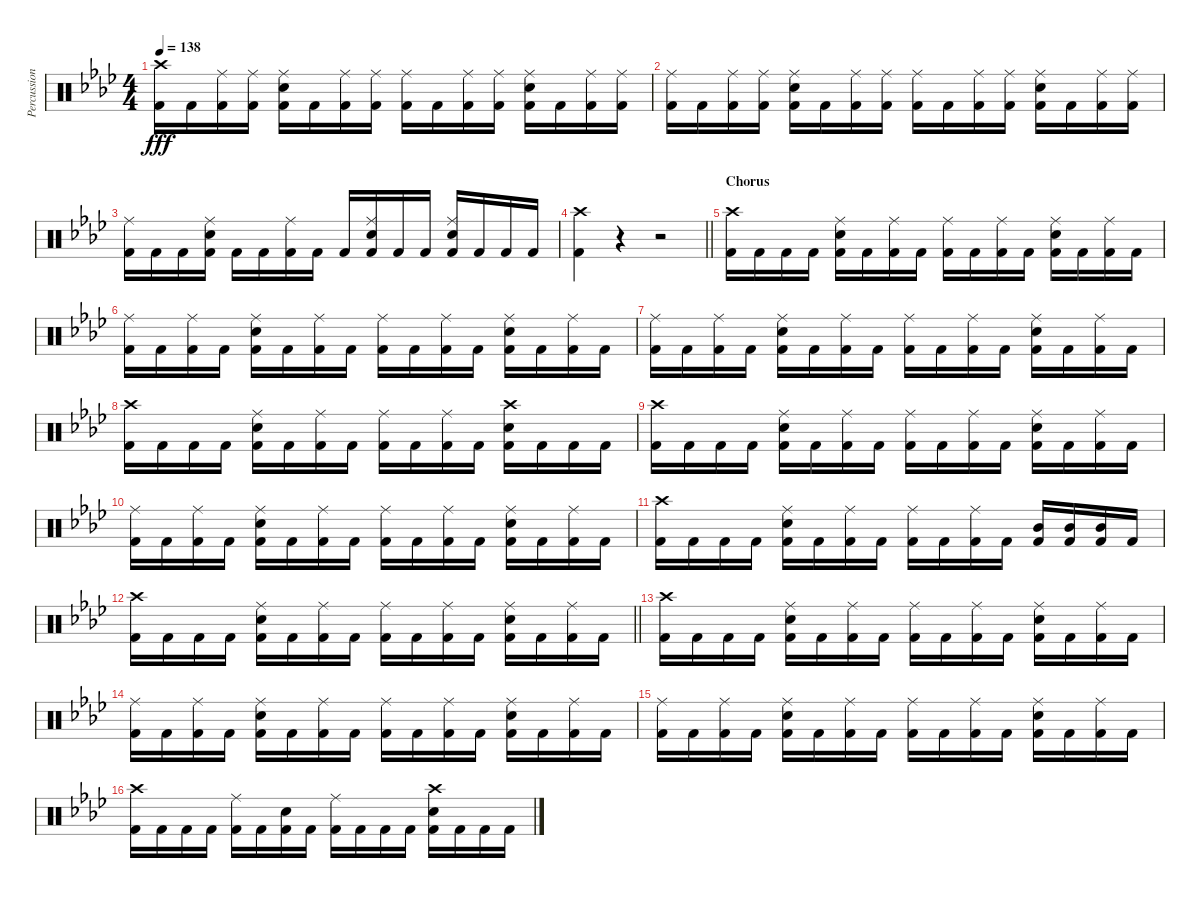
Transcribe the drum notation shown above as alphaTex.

\track ("Percussion" "Percussion") {instrument percussion}
\staff {score}
\articulation defaults
\ts (4 4)
\tempo 138
\clef neutral
\ks fminor
("Crash high (hit)" "Kick (hit) 2").16{dy fff} "Kick (hit) 2".16 ("Ride (middle)" "Kick (hit) 2").16 ("Ride (middle)" "Kick (hit) 2").16 ("Ride (middle)" "Electric Snare (hit)" "Kick (hit) 2").16 "Kick (hit) 2".16 ("Ride (middle)" "Kick (hit) 2").16 ("Ride (middle)" "Kick (hit) 2").16 ("Ride (middle)" "Kick (hit) 2").16 "Kick (hit) 2".16 ("Ride (middle)" "Kick (hit) 2").16 ("Ride (middle)" "Kick (hit) 2").16 ("Ride (middle)" "Electric Snare (hit)" "Kick (hit) 2").16 "Kick (hit) 2".16 ("Ride (middle)" "Kick (hit) 2").16 ("Ride (middle)" "Kick (hit) 2").16 |
("Ride (middle)" "Kick (hit) 2").16 "Kick (hit) 2".16 ("Ride (middle)" "Kick (hit) 2").16 ("Ride (middle)" "Kick (hit) 2").16 ("Ride (middle)" "Electric Snare (hit)" "Kick (hit) 2").16 "Kick (hit) 2".16 ("Ride (middle)" "Kick (hit) 2").16 ("Ride (middle)" "Kick (hit) 2").16 ("Ride (middle)" "Kick (hit) 2").16 "Kick (hit) 2".16 ("Ride (middle)" "Kick (hit) 2").16 ("Ride (middle)" "Kick (hit) 2").16 ("Ride (middle)" "Electric Snare (hit)" "Kick (hit) 2").16 "Kick (hit) 2".16 ("Ride (middle)" "Kick (hit) 2").16 ("Ride (middle)" "Kick (hit) 2").16 |
("Ride (middle)" "Kick (hit) 2").16 "Kick (hit) 2".16 "Kick (hit) 2".16 ("Ride (middle)" "Electric Snare (hit)" "Kick (hit) 2").16 "Kick (hit) 2".16 "Kick (hit) 2".16 ("Ride (middle)" "Kick (hit) 2").16 "Kick (hit) 2".16 "Kick (hit) 2".16 ("Ride (middle)" "Electric Snare (hit)" "Kick (hit) 2").16 "Kick (hit) 2".16 "Kick (hit) 2".16 ("Ride (middle)" "Electric Snare (hit)" "Kick (hit) 2").16 "Kick (hit) 2".16 "Kick (hit) 2".16 "Kick (hit) 2".16 |
\barLineRight lightlight
("Crash high (hit)" "Kick (hit) 2").4 r.4 r.2 |
\section ("" "Chorus")
("Crash high (hit)" "Kick (hit) 2").16 "Kick (hit) 2".16 "Kick (hit) 2".16 "Kick (hit) 2".16 ("Ride (middle)" "Electric Snare (hit)" "Kick (hit) 2").16 "Kick (hit) 2".16 ("Ride (middle)" "Kick (hit) 2").16 "Kick (hit) 2".16 ("Ride (middle)" "Kick (hit) 2").16 "Kick (hit) 2".16 ("Ride (middle)" "Kick (hit) 2").16 "Kick (hit) 2".16 ("Ride (middle)" "Electric Snare (hit)" "Kick (hit) 2").16 "Kick (hit) 2".16 ("Ride (middle)" "Kick (hit) 2").16 "Kick (hit) 2".16 |
("Ride (middle)" "Kick (hit) 2").16 "Kick (hit) 2".16 ("Ride (middle)" "Kick (hit) 2").16 "Kick (hit) 2".16 ("Ride (middle)" "Electric Snare (hit)" "Kick (hit) 2").16 "Kick (hit) 2".16 ("Ride (middle)" "Kick (hit) 2").16 "Kick (hit) 2".16 ("Ride (middle)" "Kick (hit) 2").16 "Kick (hit) 2".16 ("Ride (middle)" "Kick (hit) 2").16 "Kick (hit) 2".16 ("Ride (middle)" "Electric Snare (hit)" "Kick (hit) 2").16 "Kick (hit) 2".16 ("Ride (middle)" "Kick (hit) 2").16 "Kick (hit) 2".16 |
("Ride (middle)" "Kick (hit) 2").16 "Kick (hit) 2".16 ("Ride (middle)" "Kick (hit) 2").16 "Kick (hit) 2".16 ("Ride (middle)" "Electric Snare (hit)" "Kick (hit) 2").16 "Kick (hit) 2".16 ("Ride (middle)" "Kick (hit) 2").16 "Kick (hit) 2".16 ("Ride (middle)" "Kick (hit) 2").16 "Kick (hit) 2".16 ("Ride (middle)" "Kick (hit) 2").16 "Kick (hit) 2".16 ("Ride (middle)" "Electric Snare (hit)" "Kick (hit) 2").16 "Kick (hit) 2".16 ("Ride (middle)" "Kick (hit) 2").16 "Kick (hit) 2".16 |
("Crash high (hit)" "Kick (hit) 2").16 "Kick (hit) 2".16 "Kick (hit) 2".16 "Kick (hit) 2".16 ("Ride (middle)" "Electric Snare (hit)" "Kick (hit) 2").16 "Kick (hit) 2".16 ("Ride (middle)" "Kick (hit) 2").16 "Kick (hit) 2".16 ("Ride (middle)" "Kick (hit) 2").16 "Kick (hit) 2".16 ("Ride (middle)" "Kick (hit) 2").16 "Kick (hit) 2".16 ("Crash high (hit)" "Electric Snare (hit)" "Kick (hit) 2").16 "Kick (hit) 2".16 "Kick (hit) 2".16 "Kick (hit) 2".16 |
("Crash high (hit)" "Kick (hit) 2").16 "Kick (hit) 2".16 "Kick (hit) 2".16 "Kick (hit) 2".16 ("Ride (middle)" "Electric Snare (hit)" "Kick (hit) 2").16 "Kick (hit) 2".16 ("Ride (middle)" "Kick (hit) 2").16 "Kick (hit) 2".16 ("Ride (middle)" "Kick (hit) 2").16 "Kick (hit) 2".16 ("Ride (middle)" "Kick (hit) 2").16 "Kick (hit) 2".16 ("Ride (middle)" "Electric Snare (hit)" "Kick (hit) 2").16 "Kick (hit) 2".16 ("Ride (middle)" "Kick (hit) 2").16 "Kick (hit) 2".16 |
("Ride (middle)" "Kick (hit) 2").16 "Kick (hit) 2".16 ("Ride (middle)" "Kick (hit) 2").16 "Kick (hit) 2".16 ("Ride (middle)" "Electric Snare (hit)" "Kick (hit) 2").16 "Kick (hit) 2".16 ("Ride (middle)" "Kick (hit) 2").16 "Kick (hit) 2".16 ("Ride (middle)" "Kick (hit) 2").16 "Kick (hit) 2".16 ("Ride (middle)" "Kick (hit) 2").16 "Kick (hit) 2".16 ("Ride (middle)" "Electric Snare (hit)" "Kick (hit) 2").16 "Kick (hit) 2".16 ("Ride (middle)" "Kick (hit) 2").16 "Kick (hit) 2".16 |
("Crash high (hit)" "Kick (hit) 2").16 "Kick (hit) 2".16 "Kick (hit) 2".16 "Kick (hit) 2".16 ("Ride (middle)" "Electric Snare (hit)" "Kick (hit) 2").16 "Kick (hit) 2".16 ("Ride (middle)" "Kick (hit) 2").16 "Kick (hit) 2".16 ("Ride (middle)" "Kick (hit) 2").16 "Kick (hit) 2".16 ("Ride (middle)" "Kick (hit) 2").16 "Kick (hit) 2".16 ("Mid Tom (hit)" "Kick (hit) 2").16 ("Mid Tom (hit)" "Kick (hit) 2").16 ("Mid Tom (hit)" "Kick (hit) 2").16 "Kick (hit) 2".16 |
\barLineRight lightlight
("Crash high (hit)" "Kick (hit) 2").16 "Kick (hit) 2".16 "Kick (hit) 2".16 "Kick (hit) 2".16 ("Ride (middle)" "Electric Snare (hit)" "Kick (hit) 2").16 "Kick (hit) 2".16 ("Ride (middle)" "Kick (hit) 2").16 "Kick (hit) 2".16 ("Ride (middle)" "Kick (hit) 2").16 "Kick (hit) 2".16 ("Ride (middle)" "Kick (hit) 2").16 "Kick (hit) 2".16 ("Ride (middle)" "Electric Snare (hit)" "Kick (hit) 2").16 "Kick (hit) 2".16 ("Ride (middle)" "Kick (hit) 2").16 "Kick (hit) 2".16 |
("Crash high (hit)" "Kick (hit) 2").16 "Kick (hit) 2".16 "Kick (hit) 2".16 "Kick (hit) 2".16 ("Ride (middle)" "Electric Snare (hit)" "Kick (hit) 2").16 "Kick (hit) 2".16 ("Ride (middle)" "Kick (hit) 2").16 "Kick (hit) 2".16 ("Ride (middle)" "Kick (hit) 2").16 "Kick (hit) 2".16 ("Ride (middle)" "Kick (hit) 2").16 "Kick (hit) 2".16 ("Ride (middle)" "Electric Snare (hit)" "Kick (hit) 2").16 "Kick (hit) 2".16 ("Ride (middle)" "Kick (hit) 2").16 "Kick (hit) 2".16 |
("Ride (middle)" "Kick (hit) 2").16 "Kick (hit) 2".16 ("Ride (middle)" "Kick (hit) 2").16 "Kick (hit) 2".16 ("Ride (middle)" "Electric Snare (hit)" "Kick (hit) 2").16 "Kick (hit) 2".16 ("Ride (middle)" "Kick (hit) 2").16 "Kick (hit) 2".16 ("Ride (middle)" "Kick (hit) 2").16 "Kick (hit) 2".16 ("Ride (middle)" "Kick (hit) 2").16 "Kick (hit) 2".16 ("Ride (middle)" "Electric Snare (hit)" "Kick (hit) 2").16 "Kick (hit) 2".16 ("Ride (middle)" "Kick (hit) 2").16 "Kick (hit) 2".16 |
("Ride (middle)" "Kick (hit) 2").16 "Kick (hit) 2".16 ("Ride (middle)" "Kick (hit) 2").16 "Kick (hit) 2".16 ("Ride (middle)" "Electric Snare (hit)" "Kick (hit) 2").16 "Kick (hit) 2".16 ("Ride (middle)" "Kick (hit) 2").16 "Kick (hit) 2".16 ("Ride (middle)" "Kick (hit) 2").16 "Kick (hit) 2".16 ("Ride (middle)" "Kick (hit) 2").16 "Kick (hit) 2".16 ("Ride (middle)" "Electric Snare (hit)" "Kick (hit) 2").16 "Kick (hit) 2".16 ("Ride (middle)" "Kick (hit) 2").16 "Kick (hit) 2".16 |
("Crash high (hit)" "Kick (hit) 2").16 "Kick (hit) 2".16 "Kick (hit) 2".16 "Kick (hit) 2".16 ("Ride (middle)" "Kick (hit) 2").16 "Kick (hit) 2".16 ("Electric Snare (hit)" "Kick (hit) 2").16 "Kick (hit) 2".16 ("Ride (middle)" "Kick (hit) 2").16 "Kick (hit) 2".16 "Kick (hit) 2".16 "Kick (hit) 2".16 ("Crash high (hit)" "Electric Snare (hit)" "Kick (hit) 2").16 "Kick (hit) 2".16 "Kick (hit) 2".16 "Kick (hit) 2".16
